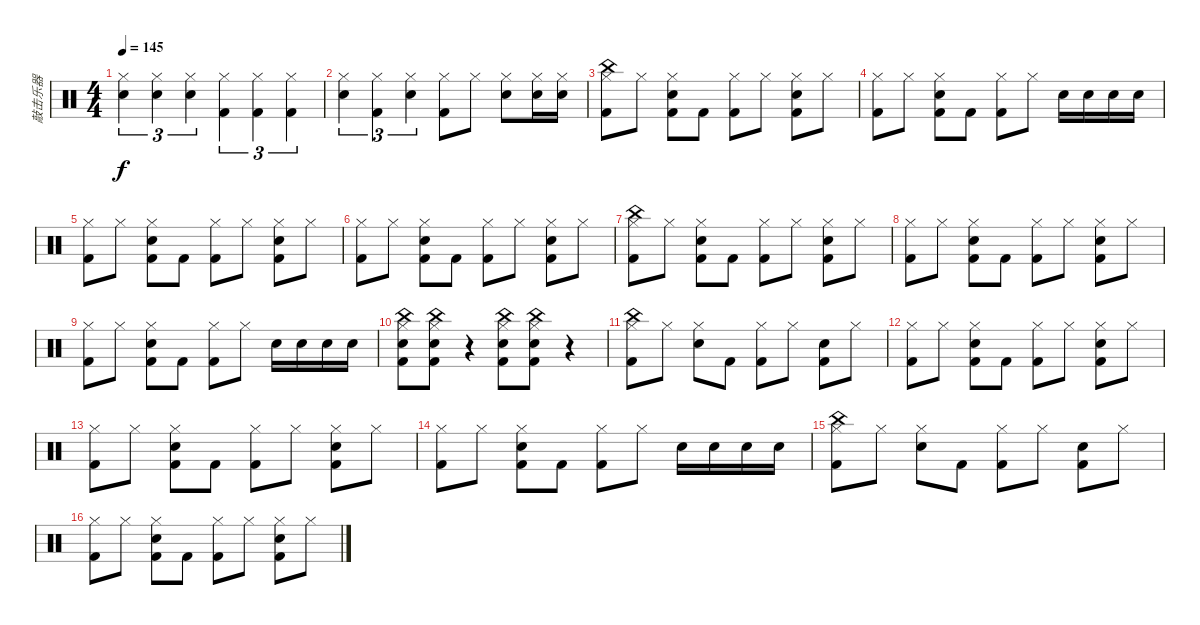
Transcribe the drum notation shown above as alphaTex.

\track ("敲击乐器" "敲击乐器") {instrument percussion}
\staff {score}
\articulation defaults
\ts (4 4)
\tempo 145
\clef neutral
\ks c
("Hi-Hat (closed)" "Electric Snare (hit)").4{tu (3 2) dy f} ("Hi-Hat (closed)" "Electric Snare (hit)").4{tu (3 2)} ("Hi-Hat (closed)" "Electric Snare (hit)").4{tu (3 2)} ("Hi-Hat (closed)" "Kick (hit) 2").4{tu (3 2)} ("Hi-Hat (closed)" "Kick (hit) 2").4{tu (3 2)} ("Hi-Hat (closed)" "Kick (hit) 2").4{tu (3 2)} |
("Hi-Hat (closed)" "Electric Snare (hit)").4{tu (3 2)} ("Hi-Hat (closed)" "Kick (hit) 2").4{tu (3 2)} ("Hi-Hat (closed)" "Electric Snare (hit)").4{tu (3 2)} ("Hi-Hat (closed)" "Kick (hit) 2").8 "Hi-Hat (closed)".8 ("Electric Snare (hit)" "Hi-Hat (closed)").8 ("Hi-Hat (closed)" "Electric Snare (hit)").16 ("Hi-Hat (closed)" "Electric Snare (hit)").16 |
("Kick (hit) 2" "Hi-Hat (closed)" "China (hit)").8 "Hi-Hat (closed)".8 ("Electric Snare (hit)" "Kick (hit) 2" "Hi-Hat (closed)").8 "Kick (hit) 2".8 ("Kick (hit) 2" "Hi-Hat (closed)").8 "Hi-Hat (closed)".8 ("Electric Snare (hit)" "Kick (hit) 2" "Hi-Hat (closed)").8 "Hi-Hat (closed)".8 |
("Kick (hit) 2" "Hi-Hat (closed)").8 "Hi-Hat (closed)".8 ("Electric Snare (hit)" "Kick (hit) 2" "Hi-Hat (closed)").8 "Kick (hit) 2".8 ("Kick (hit) 2" "Hi-Hat (closed)").8 "Hi-Hat (closed)".8 "Electric Snare (hit)".16 "Electric Snare (hit)".16 "Electric Snare (hit)".16 "Electric Snare (hit)".16 |
("Kick (hit) 2" "Hi-Hat (closed)").8 "Hi-Hat (closed)".8 ("Electric Snare (hit)" "Kick (hit) 2" "Hi-Hat (closed)").8 "Kick (hit) 2".8 ("Kick (hit) 2" "Hi-Hat (closed)").8 "Hi-Hat (closed)".8 ("Electric Snare (hit)" "Kick (hit) 2" "Hi-Hat (closed)").8 "Hi-Hat (closed)".8 |
("Kick (hit) 2" "Hi-Hat (closed)").8 "Hi-Hat (closed)".8 ("Electric Snare (hit)" "Kick (hit) 2" "Hi-Hat (closed)").8 "Kick (hit) 2".8 ("Kick (hit) 2" "Hi-Hat (closed)").8 "Hi-Hat (closed)".8 ("Electric Snare (hit)" "Kick (hit) 2" "Hi-Hat (closed)").8 "Hi-Hat (closed)".8 |
("Kick (hit) 2" "Hi-Hat (closed)" "China (hit)").8 "Hi-Hat (closed)".8 ("Electric Snare (hit)" "Kick (hit) 2" "Hi-Hat (closed)").8 "Kick (hit) 2".8 ("Kick (hit) 2" "Hi-Hat (closed)").8 "Hi-Hat (closed)".8 ("Electric Snare (hit)" "Kick (hit) 2" "Hi-Hat (closed)").8 "Hi-Hat (closed)".8 |
("Kick (hit) 2" "Hi-Hat (closed)").8 "Hi-Hat (closed)".8 ("Electric Snare (hit)" "Kick (hit) 2" "Hi-Hat (closed)").8 "Kick (hit) 2".8 ("Kick (hit) 2" "Hi-Hat (closed)").8 "Hi-Hat (closed)".8 ("Electric Snare (hit)" "Kick (hit) 2" "Hi-Hat (closed)").8 "Hi-Hat (closed)".8 |
("Kick (hit) 2" "Hi-Hat (closed)").8 "Hi-Hat (closed)".8 ("Electric Snare (hit)" "Kick (hit) 2" "Hi-Hat (closed)").8 "Kick (hit) 2".8 ("Kick (hit) 2" "Hi-Hat (closed)").8 "Hi-Hat (closed)".8 "Electric Snare (hit)".16 "Electric Snare (hit)".16 "Electric Snare (hit)".16 "Electric Snare (hit)".16 |
("Kick (hit) 2" "Electric Snare (hit)" "Hi-Hat (closed)" "China (hit)").8 ("Kick (hit) 2" "Electric Snare (hit)" "Hi-Hat (closed)" "China (hit)").8 r.4 ("Kick (hit) 2" "Electric Snare (hit)" "Hi-Hat (closed)" "China (hit)").8 ("Kick (hit) 2" "Electric Snare (hit)" "China (hit)" "Hi-Hat (closed)").8 r.4 |
("Kick (hit) 2" "Hi-Hat (closed)" "China (hit)").8 "Hi-Hat (closed)".8 ("Electric Snare (hit)" "Hi-Hat (closed)").8 "Kick (hit) 2".8 ("Kick (hit) 2" "Hi-Hat (closed)").8 "Hi-Hat (closed)".8 ("Electric Snare (hit)" "Kick (hit) 2").8 "Hi-Hat (closed)".8 |
("Kick (hit) 2" "Hi-Hat (closed)").8 "Hi-Hat (closed)".8 ("Electric Snare (hit)" "Kick (hit) 2" "Hi-Hat (closed)").8 "Kick (hit) 2".8 ("Kick (hit) 2" "Hi-Hat (closed)").8 "Hi-Hat (closed)".8 ("Electric Snare (hit)" "Kick (hit) 2" "Hi-Hat (closed)").8 "Hi-Hat (closed)".8 |
("Kick (hit) 2" "Hi-Hat (closed)").8 "Hi-Hat (closed)".8 ("Electric Snare (hit)" "Kick (hit) 2" "Hi-Hat (closed)").8 "Kick (hit) 2".8 ("Kick (hit) 2" "Hi-Hat (closed)").8 "Hi-Hat (closed)".8 ("Electric Snare (hit)" "Kick (hit) 2" "Hi-Hat (closed)").8 "Hi-Hat (closed)".8 |
("Kick (hit) 2" "Hi-Hat (closed)").8 "Hi-Hat (closed)".8 ("Electric Snare (hit)" "Kick (hit) 2" "Hi-Hat (closed)").8 "Kick (hit) 2".8 ("Kick (hit) 2" "Hi-Hat (closed)").8 "Hi-Hat (closed)".8 "Electric Snare (hit)".16 "Electric Snare (hit)".16 "Electric Snare (hit)".16 "Electric Snare (hit)".16 |
("Kick (hit) 2" "Hi-Hat (closed)" "China (hit)").8 "Hi-Hat (closed)".8 ("Electric Snare (hit)" "Hi-Hat (closed)").8 "Kick (hit) 2".8 ("Kick (hit) 2" "Hi-Hat (closed)").8 "Hi-Hat (closed)".8 ("Electric Snare (hit)" "Kick (hit) 2").8 "Hi-Hat (closed)".8 |
("Kick (hit) 2" "Hi-Hat (closed)").8 "Hi-Hat (closed)".8 ("Electric Snare (hit)" "Kick (hit) 2" "Hi-Hat (closed)").8 "Kick (hit) 2".8 ("Kick (hit) 2" "Hi-Hat (closed)").8 "Hi-Hat (closed)".8 ("Electric Snare (hit)" "Kick (hit) 2" "Hi-Hat (closed)").8 "Hi-Hat (closed)".8
